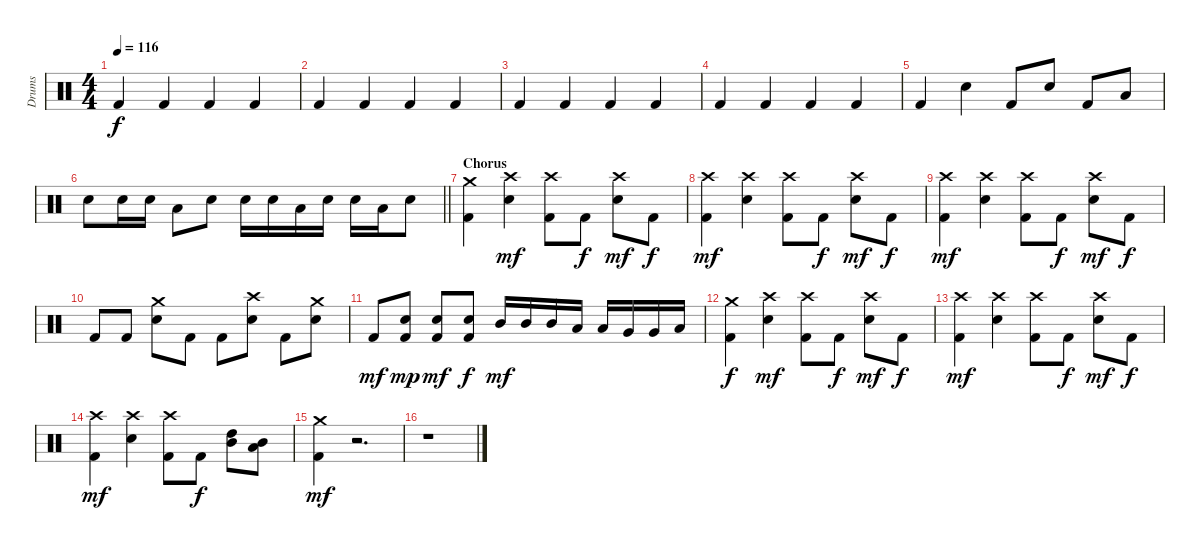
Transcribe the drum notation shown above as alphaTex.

\track ("Drums" "Drums") {instrument percussion}
\staff {score}
\articulation defaults
\ts (4 4)
\tempo 116
\clef neutral
\ks c "Kick (hit) 2".4{dy f} "Kick (hit) 2".4 "Kick (hit) 2".4 "Kick (hit) 2".4
|
"Kick (hit) 2".4 "Kick (hit) 2".4 "Kick (hit) 2".4 "Kick (hit) 2".4 |
"Kick (hit) 2".4 "Kick (hit) 2".4 "Kick (hit) 2".4 "Kick (hit) 2".4 |
"Kick (hit) 2".4 "Kick (hit) 2".4 "Kick (hit) 2".4 "Kick (hit) 2".4 |
"Kick (hit) 2".4 "Snare (hit) 2".4 "Kick (hit) 2".8 "Snare (hit) 2".8 "Kick (hit) 2".8 "Low Tom (hit)".8 |
\barLineRight lightlight "Snare (hit) 2".8 "Snare (hit) 2".16 "Snare (hit) 2".16 "Low Floor Tom (hit)".8 "Snare (hit) 2".8 "Snare (hit) 2".16 "Snare (hit) 2".16 "Low Floor Tom (hit)".16 "Snare (hit) 2".16 "Snare (hit) 2".16 "Low Floor Tom (hit)".16 "Snare (hit) 2".8
|
\section ("" "Chorus")
("Crash medium (hit)" "Kick (hit) 2").4 ("Crash high (hit)" "Snare (hit) 2").4{dy mf} ("Kick (hit) 2" "Crash high (hit)").8 "Kick (hit) 2".8{dy f} ("Snare (hit) 2" "Crash high (hit)").8{dy mf} "Kick (hit) 2".8{dy f} |
("Kick (hit) 2" "Crash high (hit)").4{dy mf} ("Snare (hit) 2" "Crash high (hit)").4 ("Crash high (hit)" "Kick (hit) 2").8 "Kick (hit) 2".8{dy f} ("Snare (hit) 2" "Crash high (hit)").8{dy mf} "Kick (hit) 2".8{dy f} |
("Kick (hit) 2" "Crash high (hit)").4{dy mf} ("Snare (hit) 2" "Crash high (hit)").4 ("Crash high (hit)" "Kick (hit) 2").8 "Kick (hit) 2".8{dy f} ("Snare (hit) 2" "Crash high (hit)").8{dy mf} "Kick (hit) 2".8{dy f} |
"Kick (hit) 2".8 "Kick (hit) 2".8 ("Crash medium (hit)" "Snare (hit) 2").8 "Kick (hit) 2".8 "Kick (hit) 2".8 ("Snare (hit) 2" "Crash high (hit)").8 "Kick (hit) 2".8 ("Snare (hit) 2" "Crash medium (hit)").8 |
"Kick (hit) 2".8{dy mf} ("Kick (hit) 2" "Snare (hit) 2").8{dy mp} ("Kick (hit) 2" "Snare (hit) 2").8{dy mf} ("Kick (hit) 2" "Snare (hit) 2").8{dy f} "Mid Tom (hit)".16{dy mf} "Mid Tom (hit)".16 "Mid Tom (hit)".16 "Low Tom (hit)".16 "Low Tom (hit)".16 "Very Low Tom (hit)".16 "Very Low Tom (hit)".16 "Low Floor Tom (hit)".16 |
("Kick (hit) 2" "Crash medium (hit)").4{dy f} ("Snare (hit) 2" "Crash high (hit)").4{dy mf} ("Kick (hit) 2" "Crash high (hit)").8 "Kick (hit) 2".8{dy f} ("Crash high (hit)" "Snare (hit) 2").8{dy mf} "Kick (hit) 2".8{dy f} |
("Kick (hit) 2" "Crash high (hit)").4{dy mf} ("Crash high (hit)" "Snare (hit) 2").4 ("Crash high (hit)" "Kick (hit) 2").8 "Kick (hit) 2".8{dy f} ("Snare (hit) 2" "Crash high (hit)").8{dy mf} "Kick (hit) 2".8{dy f} |
("Kick (hit) 2" "Crash high (hit)").4{dy mf} ("Snare (hit) 2" "Crash high (hit)").4 ("Kick (hit) 2" "Crash high (hit)").8 "Kick (hit) 2".8{dy f} ("High Tom (hit)" "Mid Tom (hit)").8 ("Low Tom (hit)" "Mid Tom (hit)").8 |
("Kick (hit) 2" "Crash medium (hit)").4{dy mf} r.2{d} |
r.1
